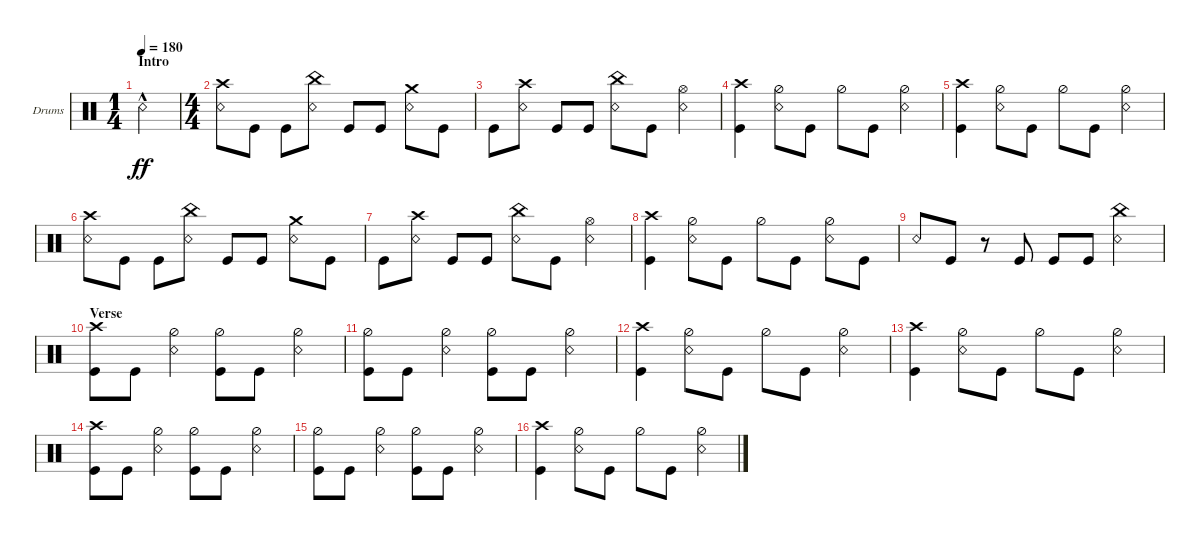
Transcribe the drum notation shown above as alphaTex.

\defaultSystemsLayout 4
\bracketExtendMode groupsimilarinstruments
\firstSystemTrackNameOrientation horizontal
\otherSystemsTrackNameOrientation horizontal
\track ("Drumkit" "Drums") {instrument percussion}
\staff {score}
\articulation defaults
\ts (1 4)
\section ("" "Intro")
\tempo 180
\clef neutral
\ks c "Snare (rim shot)"{hac}.4{dy ff}
|
\ts (4 4)
("Crash high (hit)" "Snare (rim shot)").8 "Kick (hit)".8 "Kick (hit)".8 ("Snare (rim shot)" "China (hit)").8 "Kick (hit)".8 "Kick (hit)".8 ("Snare (rim shot)" "Crash medium (hit)").8 "Kick (hit)".8 |
"Kick (hit)".8 ("Snare (rim shot)" "Crash high (hit)").8 "Kick (hit)".8 "Kick (hit)".8 ("Snare (rim shot)" "China (hit)").8 "Kick (hit)".8 ("Snare (rim shot)" "Hi-Hat (open)").4 |
("Crash high (hit)" "Kick (hit)").4 ("Snare (rim shot)" "Hi-Hat (half)").8 "Kick (hit)".8 "Hi-Hat (half)".8 "Kick (hit)".8 ("Snare (rim shot)" "Hi-Hat (half)").4 |
("Crash high (hit)" "Kick (hit)").4 ("Snare (rim shot)" "Hi-Hat (half)").8 "Kick (hit)".8 "Hi-Hat (half)".8 "Kick (hit)".8 ("Snare (rim shot)" "Hi-Hat (half)").4 |
("Crash high (hit)" "Snare (rim shot)").8 "Kick (hit)".8 "Kick (hit)".8 ("Snare (rim shot)" "China (hit)").8 "Kick (hit)".8 "Kick (hit)".8 ("Snare (rim shot)" "Crash medium (hit)").8 "Kick (hit)".8 |
"Kick (hit)".8 ("Snare (rim shot)" "Crash high (hit)").8 "Kick (hit)".8 "Kick (hit)".8 ("Snare (rim shot)" "China (hit)").8 "Kick (hit)".8 ("Snare (rim shot)" "Hi-Hat (open)").4 |
("Crash high (hit)" "Kick (hit)").4 ("Snare (rim shot)" "Hi-Hat (half)").8 "Kick (hit)".8 "Hi-Hat (half)".8 "Kick (hit)".8 ("Snare (rim shot)" "Hi-Hat (half)").8 "Kick (hit)".8 |
"Snare (rim shot)".8 "Kick (hit)".8 r.8 "Kick (hit)".8 "Kick (hit)".8 "Kick (hit)".8 ("Snare (rim shot)" "China (hit)").4 |
\section ("" "Verse")
("Kick (hit)" "Crash high (hit)").8 "Kick (hit)".8 ("Hi-Hat (half)" "Snare (rim shot)").4 ("Kick (hit)" "Hi-Hat (half)").8 "Kick (hit)".8 ("Hi-Hat (half)" "Snare (rim shot)").4 |
("Kick (hit)" "Hi-Hat (half)").8 "Kick (hit)".8 ("Hi-Hat (half)" "Snare (rim shot)").4 ("Kick (hit)" "Hi-Hat (half)").8 "Kick (hit)".8 ("Hi-Hat (half)" "Snare (rim shot)").4 |
("Crash high (hit)" "Kick (hit)").4 ("Snare (rim shot)" "Hi-Hat (half)").8 "Kick (hit)".8 "Hi-Hat (half)".8 "Kick (hit)".8 ("Snare (rim shot)" "Hi-Hat (half)").4 |
("Crash high (hit)" "Kick (hit)").4 ("Snare (rim shot)" "Hi-Hat (half)").8 "Kick (hit)".8 "Hi-Hat (half)".8 "Kick (hit)".8 ("Snare (rim shot)" "Hi-Hat (half)").4 |
("Kick (hit)" "Crash high (hit)").8 "Kick (hit)".8 ("Hi-Hat (half)" "Snare (rim shot)").4 ("Kick (hit)" "Hi-Hat (half)").8 "Kick (hit)".8 ("Hi-Hat (half)" "Snare (rim shot)").4 |
("Kick (hit)" "Hi-Hat (half)").8 "Kick (hit)".8 ("Hi-Hat (half)" "Snare (rim shot)").4 ("Kick (hit)" "Hi-Hat (half)").8 "Kick (hit)".8 ("Hi-Hat (half)" "Snare (rim shot)").4 |
("Crash high (hit)" "Kick (hit)").4 ("Snare (rim shot)" "Hi-Hat (half)").8 "Kick (hit)".8 "Hi-Hat (half)".8 "Kick (hit)".8 ("Snare (rim shot)" "Hi-Hat (half)").4
